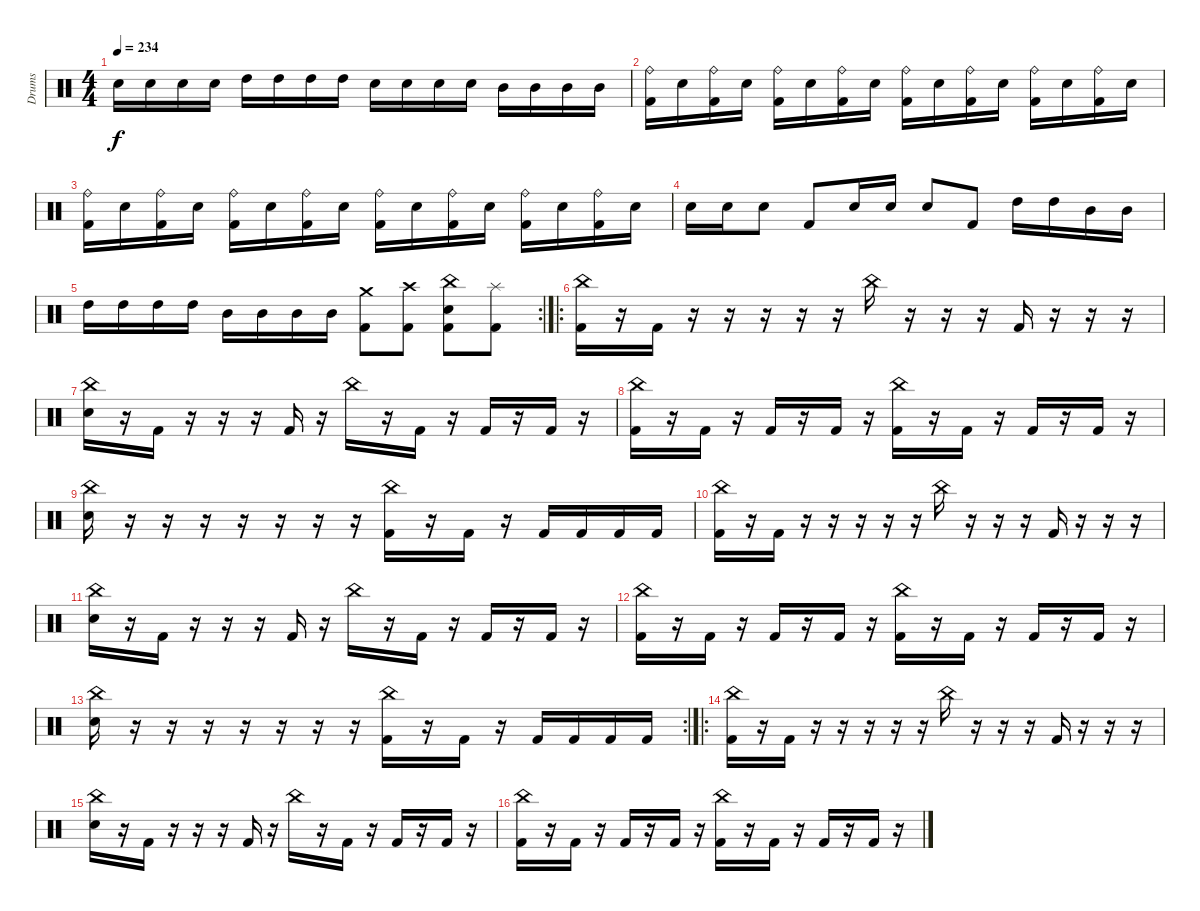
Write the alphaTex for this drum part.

\track ("Drums" "Drums") {instrument percussion}
\staff {score}
\articulation defaults
\ts (4 4)
\tempo 234
\clef neutral
\ks c "Electric Snare (hit)".16{dy f} "Electric Snare (hit)".16 "Electric Snare (hit)".16 "Electric Snare (hit)".16 "High Tom (hit)".16 "High Tom (hit)".16 "High Tom (hit)".16 "High Tom (hit)".16 "Electric Snare (hit)".16 "Electric Snare (hit)".16 "Electric Snare (hit)".16 "Electric Snare (hit)".16 "Mid Tom (hit)".16 "Mid Tom (hit)".16 "Mid Tom (hit)".16 "Mid Tom (hit)".16
|
("Ride (bell)" "Kick (hit) 2").16 "Electric Snare (hit)".16 ("Ride (bell)" "Kick (hit) 2").16 "Electric Snare (hit)".16 ("Ride (bell)" "Kick (hit) 2").16 "Electric Snare (hit)".16 ("Ride (bell)" "Kick (hit) 2").16 "Electric Snare (hit)".16 ("Ride (bell)" "Kick (hit) 2").16 "Electric Snare (hit)".16 ("Ride (bell)" "Kick (hit) 2").16 "Electric Snare (hit)".16 ("Ride (bell)" "Kick (hit) 2").16 "Electric Snare (hit)".16 ("Ride (bell)" "Kick (hit) 2").16 "Electric Snare (hit)".16 |
("Ride (bell)" "Kick (hit) 2").16 "Electric Snare (hit)".16 ("Ride (bell)" "Kick (hit) 2").16 "Electric Snare (hit)".16 ("Ride (bell)" "Kick (hit) 2").16 "Electric Snare (hit)".16 ("Ride (bell)" "Kick (hit) 2").16 "Electric Snare (hit)".16 ("Ride (bell)" "Kick (hit) 2").16 "Electric Snare (hit)".16 ("Ride (bell)" "Kick (hit) 2").16 "Electric Snare (hit)".16 ("Ride (bell)" "Kick (hit) 2").16 "Electric Snare (hit)".16 ("Ride (bell)" "Kick (hit) 2").16 "Electric Snare (hit)".16 |
"Electric Snare (hit)".16 "Electric Snare (hit)".16 "Electric Snare (hit)".8 "Kick (hit) 2".8 "Electric Snare (hit)".16 "Electric Snare (hit)".16 "Electric Snare (hit)".8 "Kick (hit) 2".8 "High Tom (hit)".16 "High Tom (hit)".16 "Mid Tom (hit)".16 "Mid Tom (hit)".16 |
\rc 2 "High Tom (hit)".16 "High Tom (hit)".16 "High Tom (hit)".16 "High Tom (hit)".16 "Mid Tom (hit)".16 "Mid Tom (hit)".16 "Mid Tom (hit)".16 "Mid Tom (hit)".16
("Crash medium (hit)" "Kick (hit) 2").8 ("Crash high (hit)" "Kick (hit) 2").8 ("China (hit)" "Electric Snare (hit)" "Kick (hit) 2").8 ("Splash (hit)" "Kick (hit) 2").8 |
\ro
("China (hit)" "Kick (hit) 2").16 r.16 "Kick (hit) 2".16 r.16 r.16 r.16 r.16 r.16 "China (hit)".16 r.16 r.16 r.16 "Kick (hit) 2".16 r.16 r.16 r.16 |
("China (hit)" "Electric Snare (hit)").16 r.16 "Kick (hit) 2".16 r.16 r.16 r.16 "Kick (hit) 2".16 r.16 "China (hit)".16 r.16 "Kick (hit) 2".16 r.16 "Kick (hit) 2".16 r.16 "Kick (hit) 2".16 r.16 |
("China (hit)" "Kick (hit) 2").16 r.16 "Kick (hit) 2".16 r.16 "Kick (hit) 2".16 r.16 "Kick (hit) 2".16 r.16 ("China (hit)" "Kick (hit) 2").16 r.16 "Kick (hit) 2".16 r.16 "Kick (hit) 2".16 r.16 "Kick (hit) 2".16 r.16 |
("China (hit)" "Electric Snare (hit)").16 r.16 r.16 r.16 r.16 r.16 r.16 r.16 ("China (hit)" "Kick (hit) 2").16 r.16 "Kick (hit) 2".16 r.16 "Kick (hit) 2".16 "Kick (hit) 2".16 "Kick (hit) 2".16 "Kick (hit) 2".16 |
("China (hit)" "Kick (hit) 2").16 r.16 "Kick (hit) 2".16 r.16 r.16 r.16 r.16 r.16 "China (hit)".16 r.16 r.16 r.16 "Kick (hit) 2".16 r.16 r.16 r.16 |
("China (hit)" "Electric Snare (hit)").16 r.16 "Kick (hit) 2".16 r.16 r.16 r.16 "Kick (hit) 2".16 r.16 "China (hit)".16 r.16 "Kick (hit) 2".16 r.16 "Kick (hit) 2".16 r.16 "Kick (hit) 2".16 r.16 |
("China (hit)" "Kick (hit) 2").16 r.16 "Kick (hit) 2".16 r.16 "Kick (hit) 2".16 r.16 "Kick (hit) 2".16 r.16 ("China (hit)" "Kick (hit) 2").16 r.16 "Kick (hit) 2".16 r.16 "Kick (hit) 2".16 r.16 "Kick (hit) 2".16 r.16 |
\rc 2
("China (hit)" "Electric Snare (hit)").16 r.16 r.16 r.16 r.16 r.16 r.16 r.16 ("China (hit)" "Kick (hit) 2").16 r.16 "Kick (hit) 2".16 r.16 "Kick (hit) 2".16 "Kick (hit) 2".16 "Kick (hit) 2".16 "Kick (hit) 2".16 |
\ro
("China (hit)" "Kick (hit) 2").16 r.16 "Kick (hit) 2".16 r.16 r.16 r.16 r.16 r.16 "China (hit)".16 r.16 r.16 r.16 "Kick (hit) 2".16 r.16 r.16 r.16 |
("China (hit)" "Electric Snare (hit)").16 r.16 "Kick (hit) 2".16 r.16 r.16 r.16 "Kick (hit) 2".16 r.16 "China (hit)".16 r.16 "Kick (hit) 2".16 r.16 "Kick (hit) 2".16 r.16 "Kick (hit) 2".16 r.16 |
("China (hit)" "Kick (hit) 2").16 r.16 "Kick (hit) 2".16 r.16 "Kick (hit) 2".16 r.16 "Kick (hit) 2".16 r.16 ("China (hit)" "Kick (hit) 2").16 r.16 "Kick (hit) 2".16 r.16 "Kick (hit) 2".16 r.16 "Kick (hit) 2".16 r.16
